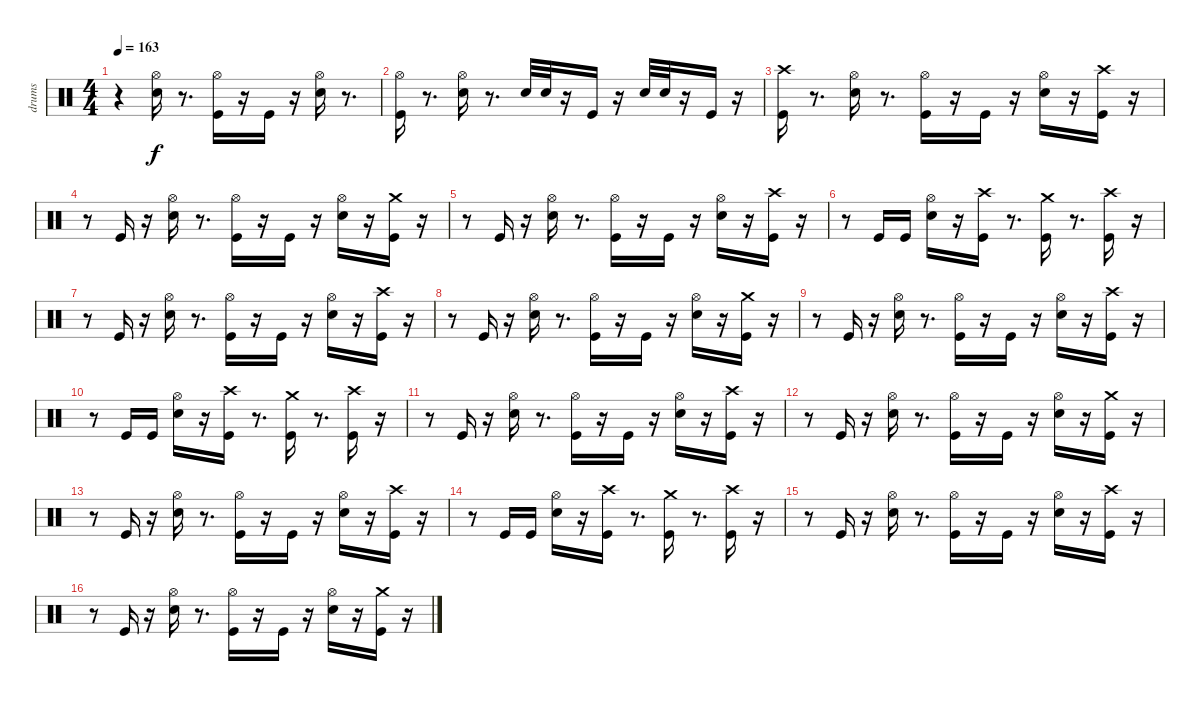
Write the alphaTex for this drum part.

\track ("drums" "drums") {instrument percussion}
\staff {score}
\articulation defaults
\ts (4 4)
\tempo 163
\clef neutral
\ks c
r.4{dy f} ("Hi-Hat (open)" "Snare (hit) 2").16 r.8{d} ("Hi-Hat (open)" "Kick (hit)").16 r.16 "Kick (hit)".16 r.16 ("Hi-Hat (open)" "Snare (hit) 2").16 r.8{d} |
("Hi-Hat (open)" "Kick (hit)").16 r.8{d} ("Hi-Hat (open)" "Snare (hit) 2").16 r.8{d} "Snare (hit) 2".32 "Snare (hit) 2".32 r.16 "Kick (hit)".16 r.16 "Snare (hit) 2".32 "Snare (hit) 2".32 r.16 "Kick (hit)".16 r.16 |
("Crash high (hit)" "Kick (hit)").16 r.8{d} ("Hi-Hat (open)" "Snare (hit) 2").16 r.8{d} ("Hi-Hat (open)" "Kick (hit)").16 r.16 "Kick (hit)".16 r.16 ("Hi-Hat (open)" "Snare (hit) 2").16 r.16 ("Kick (hit)" "Crash high (hit)").16 r.16 |
r.8 "Kick (hit)".16 r.16 ("Hi-Hat (open)" "Snare (hit) 2").16 r.8{d} ("Hi-Hat (open)" "Kick (hit)").16 r.16 "Kick (hit)".16 r.16 ("Hi-Hat (open)" "Snare (hit) 2").16 r.16 ("Kick (hit)" "Crash medium (hit)").16 r.16 |
r.8 "Kick (hit)".16 r.16 ("Hi-Hat (open)" "Snare (hit) 2").16 r.8{d} ("Hi-Hat (open)" "Kick (hit)").16 r.16 "Kick (hit)".16 r.16 ("Hi-Hat (open)" "Snare (hit) 2").16 r.16 ("Crash high (hit)" "Kick (hit)").16 r.16 |
r.8 "Kick (hit)".16 "Kick (hit)".16 ("Hi-Hat (open)" "Snare (hit) 2").16 r.16 ("Kick (hit)" "Crash high (hit)").16 r.8{d} ("Kick (hit)" "Crash medium (hit)").16 r.8{d} ("Kick (hit)" "Crash high (hit)").16 r.16 |
r.8 "Kick (hit)".16 r.16 ("Hi-Hat (open)" "Snare (hit) 2").16 r.8{d} ("Hi-Hat (open)" "Kick (hit)").16 r.16 "Kick (hit)".16 r.16 ("Hi-Hat (open)" "Snare (hit) 2").16 r.16 ("Kick (hit)" "Crash high (hit)").16 r.16 |
r.8 "Kick (hit)".16 r.16 ("Hi-Hat (open)" "Snare (hit) 2").16 r.8{d} ("Hi-Hat (open)" "Kick (hit)").16 r.16 "Kick (hit)".16 r.16 ("Hi-Hat (open)" "Snare (hit) 2").16 r.16 ("Kick (hit)" "Crash medium (hit)").16 r.16 |
r.8 "Kick (hit)".16 r.16 ("Hi-Hat (open)" "Snare (hit) 2").16 r.8{d} ("Hi-Hat (open)" "Kick (hit)").16 r.16 "Kick (hit)".16 r.16 ("Hi-Hat (open)" "Snare (hit) 2").16 r.16 ("Crash high (hit)" "Kick (hit)").16 r.16 |
r.8 "Kick (hit)".16 "Kick (hit)".16 ("Hi-Hat (open)" "Snare (hit) 2").16 r.16 ("Kick (hit)" "Crash high (hit)").16 r.8{d} ("Kick (hit)" "Crash medium (hit)").16 r.8{d} ("Kick (hit)" "Crash high (hit)").16 r.16 |
r.8 "Kick (hit)".16 r.16 ("Hi-Hat (open)" "Snare (hit) 2").16 r.8{d} ("Hi-Hat (open)" "Kick (hit)").16 r.16 "Kick (hit)".16 r.16 ("Hi-Hat (open)" "Snare (hit) 2").16 r.16 ("Kick (hit)" "Crash high (hit)").16 r.16 |
r.8 "Kick (hit)".16 r.16 ("Hi-Hat (open)" "Snare (hit) 2").16 r.8{d} ("Hi-Hat (open)" "Kick (hit)").16 r.16 "Kick (hit)".16 r.16 ("Hi-Hat (open)" "Snare (hit) 2").16 r.16 ("Kick (hit)" "Crash medium (hit)").16 r.16 |
r.8 "Kick (hit)".16 r.16 ("Hi-Hat (open)" "Snare (hit) 2").16 r.8{d} ("Hi-Hat (open)" "Kick (hit)").16 r.16 "Kick (hit)".16 r.16 ("Hi-Hat (open)" "Snare (hit) 2").16 r.16 ("Crash high (hit)" "Kick (hit)").16 r.16 |
r.8 "Kick (hit)".16 "Kick (hit)".16 ("Hi-Hat (open)" "Snare (hit) 2").16 r.16 ("Kick (hit)" "Crash high (hit)").16 r.8{d} ("Kick (hit)" "Crash medium (hit)").16 r.8{d} ("Kick (hit)" "Crash high (hit)").16 r.16 |
r.8 "Kick (hit)".16 r.16 ("Hi-Hat (open)" "Snare (hit) 2").16 r.8{d} ("Hi-Hat (open)" "Kick (hit)").16 r.16 "Kick (hit)".16 r.16 ("Hi-Hat (open)" "Snare (hit) 2").16 r.16 ("Kick (hit)" "Crash high (hit)").16 r.16 |
r.8 "Kick (hit)".16 r.16 ("Hi-Hat (open)" "Snare (hit) 2").16 r.8{d} ("Hi-Hat (open)" "Kick (hit)").16 r.16 "Kick (hit)".16 r.16 ("Hi-Hat (open)" "Snare (hit) 2").16 r.16 ("Kick (hit)" "Crash medium (hit)").16 r.16
